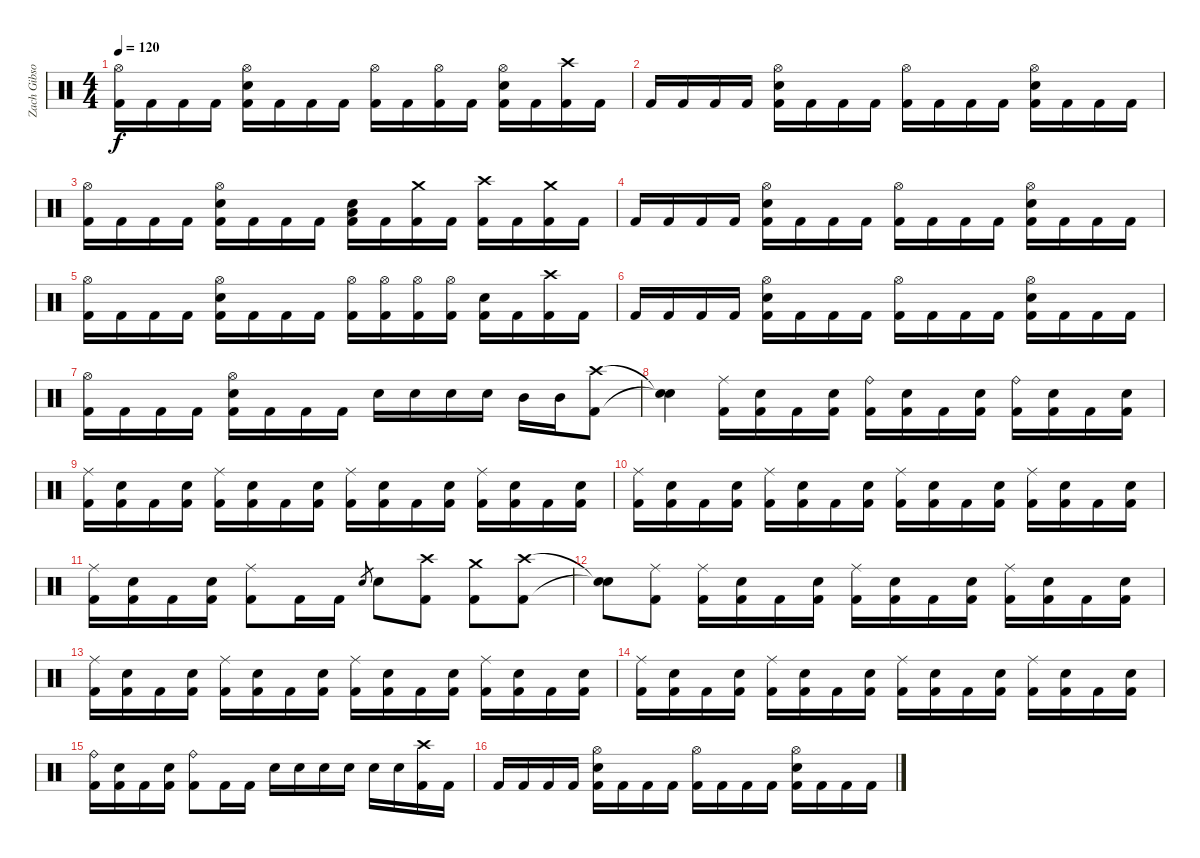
\track ("Zach Gibson (Drums)" "Zach Gibso") {instrument percussion}
\staff {score}
\articulation defaults
\ts (4 4)
\tempo 120
\clef neutral
\ks c
("Hi-Hat (open)" "Kick (hit) 2").16{dy f} "Kick (hit) 2".16 "Kick (hit) 2".16 "Kick (hit) 2".16 ("Hi-Hat (open)" "Snare (hit) 2" "Kick (hit) 2").16 "Kick (hit) 2".16 "Kick (hit) 2".16 "Kick (hit) 2".16 ("Hi-Hat (open)" "Kick (hit) 2").16 "Kick (hit) 2".16 ("Hi-Hat (open)" "Kick (hit) 2").16 "Kick (hit) 2".16 ("Hi-Hat (open)" "Snare (hit) 2" "Kick (hit) 2").16 "Kick (hit) 2".16 ("Crash high (hit)" "Kick (hit) 2").16 "Kick (hit) 2".16 |
"Kick (hit) 2".16 "Kick (hit) 2".16 "Kick (hit) 2".16 "Kick (hit) 2".16 ("Hi-Hat (open)" "Snare (hit) 2" "Kick (hit) 2").16 "Kick (hit) 2".16 "Kick (hit) 2".16 "Kick (hit) 2".16 ("Hi-Hat (open)" "Kick (hit) 2").16 "Kick (hit) 2".16 "Kick (hit) 2".16 "Kick (hit) 2".16 ("Hi-Hat (open)" "Snare (hit) 2" "Kick (hit) 2").16 "Kick (hit) 2".16 "Kick (hit) 2".16 "Kick (hit) 2".16 |
("Hi-Hat (open)" "Kick (hit) 2").16 "Kick (hit) 2".16 "Kick (hit) 2".16 "Kick (hit) 2".16 ("Hi-Hat (open)" "Snare (hit) 2" "Kick (hit) 2").16 "Kick (hit) 2".16 "Kick (hit) 2".16 "Kick (hit) 2".16 ("Low Floor Tom (hit)" "Snare (hit) 2" "Kick (hit) 2").16 "Kick (hit) 2".16 ("Crash medium (hit)" "Kick (hit) 2").16 "Kick (hit) 2".16 ("Crash high (hit)" "Kick (hit) 2").16 "Kick (hit) 2".16 ("Crash medium (hit)" "Kick (hit) 2").16 "Kick (hit) 2".16 |
"Kick (hit) 2".16 "Kick (hit) 2".16 "Kick (hit) 2".16 "Kick (hit) 2".16 ("Hi-Hat (open)" "Snare (hit) 2" "Kick (hit) 2").16 "Kick (hit) 2".16 "Kick (hit) 2".16 "Kick (hit) 2".16 ("Hi-Hat (open)" "Kick (hit) 2").16 "Kick (hit) 2".16 "Kick (hit) 2".16 "Kick (hit) 2".16 ("Hi-Hat (open)" "Snare (hit) 2" "Kick (hit) 2").16 "Kick (hit) 2".16 "Kick (hit) 2".16 "Kick (hit) 2".16 |
("Hi-Hat (open)" "Kick (hit) 2").16 "Kick (hit) 2".16 "Kick (hit) 2".16 "Kick (hit) 2".16 ("Hi-Hat (open)" "Snare (hit) 2" "Kick (hit) 2").16 "Kick (hit) 2".16 "Kick (hit) 2".16 "Kick (hit) 2".16 ("Hi-Hat (open)" "Kick (hit) 2").16 ("Hi-Hat (open)" "Kick (hit) 2").16 ("Hi-Hat (open)" "Kick (hit) 2").16 ("Hi-Hat (open)" "Kick (hit) 2").16 ("Snare (hit) 2" "Kick (hit) 2").16 "Kick (hit) 2".16 ("Crash high (hit)" "Kick (hit) 2").16 "Kick (hit) 2".16 |
"Kick (hit) 2".16 "Kick (hit) 2".16 "Kick (hit) 2".16 "Kick (hit) 2".16 ("Hi-Hat (open)" "Snare (hit) 2" "Kick (hit) 2").16 "Kick (hit) 2".16 "Kick (hit) 2".16 "Kick (hit) 2".16 ("Hi-Hat (open)" "Kick (hit) 2").16 "Kick (hit) 2".16 "Kick (hit) 2".16 "Kick (hit) 2".16 ("Hi-Hat (open)" "Snare (hit) 2" "Kick (hit) 2").16 "Kick (hit) 2".16 "Kick (hit) 2".16 "Kick (hit) 2".16 |
("Hi-Hat (open)" "Kick (hit) 2").16 "Kick (hit) 2".16 "Kick (hit) 2".16 "Kick (hit) 2".16 ("Hi-Hat (open)" "Snare (hit) 2" "Kick (hit) 2").16 "Kick (hit) 2".16 "Kick (hit) 2".16 "Kick (hit) 2".16 "Snare (hit) 2".16 "Snare (hit) 2".16 "Snare (hit) 2".16 "Snare (hit) 2".16 "Mid Tom (hit)".16 "Mid Tom (hit)".16 ("Crash high (hit)" "Kick (hit) 2").8 |
("Snare (hit)"{t} "Snare (hit)"{t}).4 ("Ride (middle)" "Kick (hit) 2").16 ("Snare (hit) 2" "Kick (hit) 2").16 "Kick (hit) 2".16 ("Snare (hit) 2" "Kick (hit) 2").16 ("Ride (bell)" "Kick (hit) 2").16 ("Snare (hit) 2" "Kick (hit) 2").16 "Kick (hit) 2".16 ("Snare (hit) 2" "Kick (hit) 2").16 ("Ride (bell)" "Kick (hit) 2").16 ("Snare (hit) 2" "Kick (hit) 2").16 "Kick (hit) 2".16 ("Snare (hit) 2" "Kick (hit) 2").16 |
("Ride (middle)" "Kick (hit) 2").16 ("Snare (hit) 2" "Kick (hit) 2").16 "Kick (hit) 2".16 ("Snare (hit) 2" "Kick (hit) 2").16 ("Ride (middle)" "Kick (hit) 2").16 ("Snare (hit) 2" "Kick (hit) 2").16 "Kick (hit) 2".16 ("Snare (hit) 2" "Kick (hit) 2").16 ("Ride (middle)" "Kick (hit) 2").16 ("Snare (hit) 2" "Kick (hit) 2").16 "Kick (hit) 2".16 ("Snare (hit) 2" "Kick (hit) 2").16 ("Ride (middle)" "Kick (hit) 2").16 ("Snare (hit) 2" "Kick (hit) 2").16 "Kick (hit) 2".16 ("Snare (hit) 2" "Kick (hit) 2").16 |
("Ride (middle)" "Kick (hit) 2").16 ("Snare (hit) 2" "Kick (hit) 2").16 "Kick (hit) 2".16 ("Snare (hit) 2" "Kick (hit) 2").16 ("Ride (middle)" "Kick (hit) 2").16 ("Snare (hit) 2" "Kick (hit) 2").16 "Kick (hit) 2".16 ("Snare (hit) 2" "Kick (hit) 2").16 ("Ride (middle)" "Kick (hit) 2").16 ("Snare (hit) 2" "Kick (hit) 2").16 "Kick (hit) 2".16 ("Snare (hit) 2" "Kick (hit) 2").16 ("Ride (middle)" "Kick (hit) 2").16 ("Snare (hit) 2" "Kick (hit) 2").16 "Kick (hit) 2".16 ("Snare (hit) 2" "Kick (hit) 2").16 |
("Ride (middle)" "Kick (hit) 2").16 ("Snare (hit) 2" "Kick (hit) 2").16 "Kick (hit) 2".16 ("Snare (hit) 2" "Kick (hit) 2").16 ("Ride (middle)" "Kick (hit) 2").8 "Kick (hit) 2".16 "Kick (hit) 2".16 "Snare (hit) 2".8{gr} "Snare (hit) 2".8 ("Crash high (hit)" "Kick (hit) 2").8 ("Crash medium (hit)" "Kick (hit) 2").8 ("Crash high (hit)" "Kick (hit) 2").8 |
("Snare (hit)"{t} "Snare (hit)"{t}).8 ("Ride (middle)" "Kick (hit) 2").8 ("Ride (middle)" "Kick (hit) 2").16 ("Snare (hit) 2" "Kick (hit) 2").16 "Kick (hit) 2".16 ("Snare (hit) 2" "Kick (hit) 2").16 ("Ride (middle)" "Kick (hit) 2").16 ("Snare (hit) 2" "Kick (hit) 2").16 "Kick (hit) 2".16 ("Snare (hit) 2" "Kick (hit) 2").16 ("Ride (middle)" "Kick (hit) 2").16 ("Snare (hit) 2" "Kick (hit) 2").16 "Kick (hit) 2".16 ("Snare (hit) 2" "Kick (hit) 2").16 |
("Ride (middle)" "Kick (hit) 2").16 ("Snare (hit) 2" "Kick (hit) 2").16 "Kick (hit) 2".16 ("Snare (hit) 2" "Kick (hit) 2").16 ("Ride (middle)" "Kick (hit) 2").16 ("Snare (hit) 2" "Kick (hit) 2").16 "Kick (hit) 2".16 ("Snare (hit) 2" "Kick (hit) 2").16 ("Ride (middle)" "Kick (hit) 2").16 ("Snare (hit) 2" "Kick (hit) 2").16 "Kick (hit) 2".16 ("Snare (hit) 2" "Kick (hit) 2").16 ("Ride (middle)" "Kick (hit) 2").16 ("Snare (hit) 2" "Kick (hit) 2").16 "Kick (hit) 2".16 ("Snare (hit) 2" "Kick (hit) 2").16 |
("Ride (middle)" "Kick (hit) 2").16 ("Snare (hit) 2" "Kick (hit) 2").16 "Kick (hit) 2".16 ("Snare (hit) 2" "Kick (hit) 2").16 ("Ride (middle)" "Kick (hit) 2").16 ("Snare (hit) 2" "Kick (hit) 2").16 "Kick (hit) 2".16 ("Snare (hit) 2" "Kick (hit) 2").16 ("Ride (middle)" "Kick (hit) 2").16 ("Snare (hit) 2" "Kick (hit) 2").16 "Kick (hit) 2".16 ("Snare (hit) 2" "Kick (hit) 2").16 ("Ride (middle)" "Kick (hit) 2").16 ("Snare (hit) 2" "Kick (hit) 2").16 "Kick (hit) 2".16 ("Snare (hit) 2" "Kick (hit) 2").16 |
("Ride (bell)" "Kick (hit) 2").16 ("Snare (hit) 2" "Kick (hit) 2").16 "Kick (hit) 2".16 ("Snare (hit) 2" "Kick (hit) 2").16 ("Ride (bell)" "Kick (hit) 2").8 "Kick (hit) 2".16 "Kick (hit) 2".16 "Snare (hit) 2".16 "Snare (hit) 2".16 "Snare (hit) 2".16 "Snare (hit) 2".16 "Snare (hit) 2".16 "Snare (hit) 2".16 ("Crash high (hit)" "Kick (hit) 2").16 "Kick (hit) 2".16 |
"Kick (hit) 2".16 "Kick (hit) 2".16 "Kick (hit) 2".16 "Kick (hit) 2".16 ("Hi-Hat (open)" "Snare (hit) 2" "Kick (hit) 2").16 "Kick (hit) 2".16 "Kick (hit) 2".16 "Kick (hit) 2".16 ("Hi-Hat (open)" "Kick (hit) 2").16 "Kick (hit) 2".16 "Kick (hit) 2".16 "Kick (hit) 2".16 ("Hi-Hat (open)" "Snare (hit) 2" "Kick (hit) 2").16 "Kick (hit) 2".16 "Kick (hit) 2".16 "Kick (hit) 2".16
